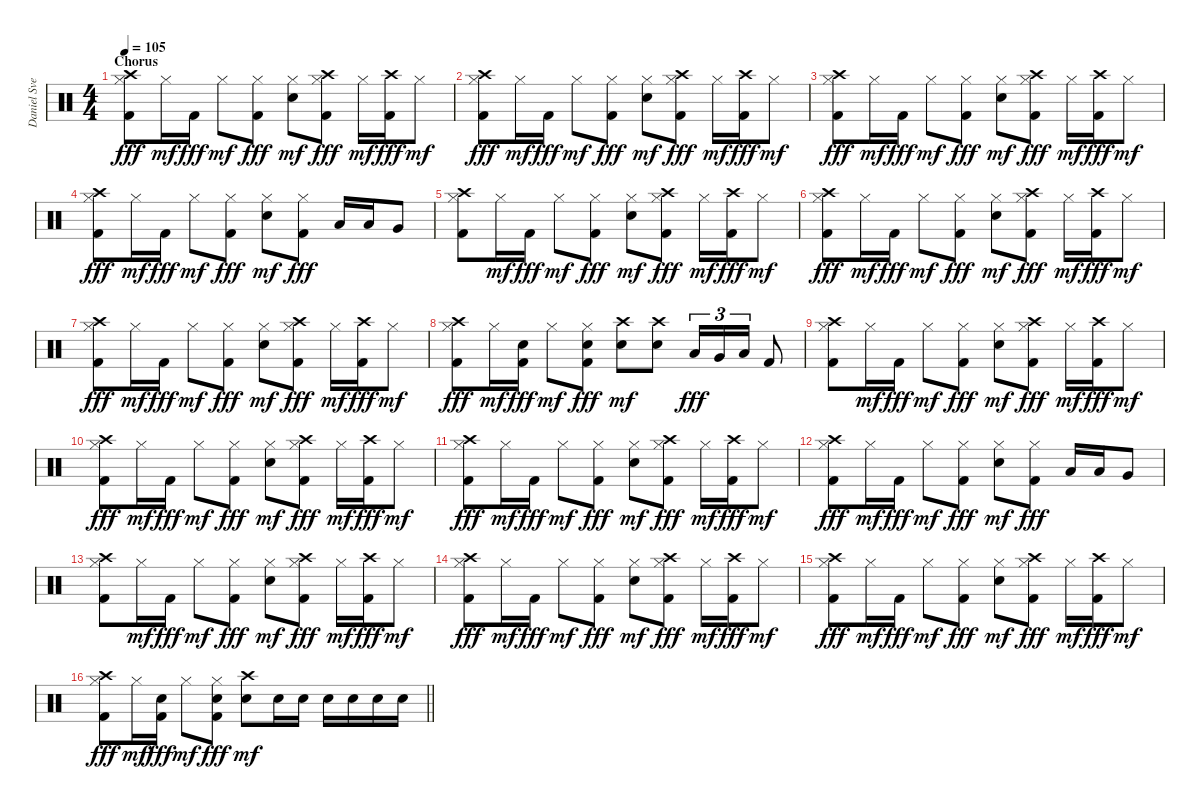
\track ("Daniel Svensson" "Daniel Sve") {instrument percussion}
\staff {score}
\articulation defaults
\ts (4 4)
\section ("" "Chorus")
\tempo 105
\clef neutral
\ks c
("Crash high (hit)" "Hi-Hat (closed)" "Kick (hit) 2").8{dy fff} "Hi-Hat (closed)".16{dy mf} "Kick (hit) 2".16{dy fff} "Hi-Hat (closed)".8{dy mf} ("Hi-Hat (closed)" "Kick (hit) 2").8{dy fff} ("Hi-Hat (closed)" "Electric Snare (hit)").8{dy mf} ("Crash high (hit)" "Hi-Hat (closed)" "Kick (hit) 2").8{dy fff} "Hi-Hat (closed)".16{dy mf} ("Crash high (hit)" "Kick (hit) 2").16{dy fff} "Hi-Hat (closed)".8{dy mf} |
("Crash high (hit)" "Hi-Hat (closed)" "Kick (hit) 2").8{dy fff} "Hi-Hat (closed)".16{dy mf} "Kick (hit) 2".16{dy fff} "Hi-Hat (closed)".8{dy mf} ("Hi-Hat (closed)" "Kick (hit) 2").8{dy fff} ("Hi-Hat (closed)" "Electric Snare (hit)").8{dy mf} ("Crash high (hit)" "Hi-Hat (closed)" "Kick (hit) 2").8{dy fff} "Hi-Hat (closed)".16{dy mf} ("Crash high (hit)" "Kick (hit) 2").16{dy fff} "Hi-Hat (closed)".8{dy mf} |
("Crash high (hit)" "Hi-Hat (closed)" "Kick (hit) 2").8{dy fff} "Hi-Hat (closed)".16{dy mf} "Kick (hit) 2".16{dy fff} "Hi-Hat (closed)".8{dy mf} ("Hi-Hat (closed)" "Kick (hit) 2").8{dy fff} ("Hi-Hat (closed)" "Electric Snare (hit)").8{dy mf} ("Crash high (hit)" "Hi-Hat (closed)" "Kick (hit) 2").8{dy fff} "Hi-Hat (closed)".16{dy mf} ("Crash high (hit)" "Kick (hit) 2").16{dy fff} "Hi-Hat (closed)".8{dy mf} |
("Crash high (hit)" "Hi-Hat (closed)" "Kick (hit) 2").8{dy fff} "Hi-Hat (closed)".16{dy mf} "Kick (hit) 2".16{dy fff} "Hi-Hat (closed)".8{dy mf} ("Hi-Hat (closed)" "Kick (hit) 2").8{dy fff} ("Hi-Hat (closed)" "Electric Snare (hit)").8{dy mf} ("Hi-Hat (closed)" "Kick (hit) 2").8{dy fff} "Low Tom (hit)".16 "Low Tom (hit)".16 "Very Low Tom (hit)".8 |
("Crash high (hit)" "Hi-Hat (closed)" "Kick (hit) 2").8 "Hi-Hat (closed)".16{dy mf} "Kick (hit) 2".16{dy fff} "Hi-Hat (closed)".8{dy mf} ("Hi-Hat (closed)" "Kick (hit) 2").8{dy fff} ("Hi-Hat (closed)" "Electric Snare (hit)").8{dy mf} ("Crash high (hit)" "Hi-Hat (closed)" "Kick (hit) 2").8{dy fff} "Hi-Hat (closed)".16{dy mf} ("Crash high (hit)" "Kick (hit) 2").16{dy fff} "Hi-Hat (closed)".8{dy mf} |
("Crash high (hit)" "Hi-Hat (closed)" "Kick (hit) 2").8{dy fff} "Hi-Hat (closed)".16{dy mf} "Kick (hit) 2".16{dy fff} "Hi-Hat (closed)".8{dy mf} ("Hi-Hat (closed)" "Kick (hit) 2").8{dy fff} ("Hi-Hat (closed)" "Electric Snare (hit)").8{dy mf} ("Crash high (hit)" "Hi-Hat (closed)" "Kick (hit) 2").8{dy fff} "Hi-Hat (closed)".16{dy mf} ("Crash high (hit)" "Kick (hit) 2").16{dy fff} "Hi-Hat (closed)".8{dy mf} |
("Crash high (hit)" "Hi-Hat (closed)" "Kick (hit) 2").8{dy fff} "Hi-Hat (closed)".16{dy mf} "Kick (hit) 2".16{dy fff} "Hi-Hat (closed)".8{dy mf} ("Hi-Hat (closed)" "Kick (hit) 2").8{dy fff} ("Hi-Hat (closed)" "Electric Snare (hit)").8{dy mf} ("Crash high (hit)" "Hi-Hat (closed)" "Kick (hit) 2").8{dy fff} "Hi-Hat (closed)".16{dy mf} ("Crash high (hit)" "Kick (hit) 2").16{dy fff} "Hi-Hat (closed)".8{dy mf} |
("Crash high (hit)" "Hi-Hat (closed)" "Kick (hit) 2").8{dy fff} "Hi-Hat (closed)".16{dy mf} ("Electric Snare (hit)" "Kick (hit) 2").16{dy fff} "Hi-Hat (closed)".8{dy mf} ("Hi-Hat (closed)" "Electric Snare (hit)" "Kick (hit) 2").8{dy fff} ("Crash high (hit)" "Electric Snare (hit)").8{dy mf} ("Crash high (hit)" "Electric Snare (hit)").8 "Low Tom (hit)".16{tu (3 2) dy fff} "Very Low Tom (hit)".16{tu (3 2)} "Low Floor Tom (hit)".16{tu (3 2)} "Kick (hit) 2".8 |
("Crash high (hit)" "Hi-Hat (closed)" "Kick (hit) 2").8 "Hi-Hat (closed)".16{dy mf} "Kick (hit) 2".16{dy fff} "Hi-Hat (closed)".8{dy mf} ("Hi-Hat (closed)" "Kick (hit) 2").8{dy fff} ("Hi-Hat (closed)" "Electric Snare (hit)").8{dy mf} ("Crash high (hit)" "Hi-Hat (closed)" "Kick (hit) 2").8{dy fff} "Hi-Hat (closed)".16{dy mf} ("Crash high (hit)" "Kick (hit) 2").16{dy fff} "Hi-Hat (closed)".8{dy mf} |
("Crash high (hit)" "Hi-Hat (closed)" "Kick (hit) 2").8{dy fff} "Hi-Hat (closed)".16{dy mf} "Kick (hit) 2".16{dy fff} "Hi-Hat (closed)".8{dy mf} ("Hi-Hat (closed)" "Kick (hit) 2").8{dy fff} ("Hi-Hat (closed)" "Electric Snare (hit)").8{dy mf} ("Crash high (hit)" "Hi-Hat (closed)" "Kick (hit) 2").8{dy fff} "Hi-Hat (closed)".16{dy mf} ("Crash high (hit)" "Kick (hit) 2").16{dy fff} "Hi-Hat (closed)".8{dy mf} |
("Crash high (hit)" "Hi-Hat (closed)" "Kick (hit) 2").8{dy fff} "Hi-Hat (closed)".16{dy mf} "Kick (hit) 2".16{dy fff} "Hi-Hat (closed)".8{dy mf} ("Hi-Hat (closed)" "Kick (hit) 2").8{dy fff} ("Hi-Hat (closed)" "Electric Snare (hit)").8{dy mf} ("Crash high (hit)" "Hi-Hat (closed)" "Kick (hit) 2").8{dy fff} "Hi-Hat (closed)".16{dy mf} ("Crash high (hit)" "Kick (hit) 2").16{dy fff} "Hi-Hat (closed)".8{dy mf} |
("Crash high (hit)" "Hi-Hat (closed)" "Kick (hit) 2").8{dy fff} "Hi-Hat (closed)".16{dy mf} "Kick (hit) 2".16{dy fff} "Hi-Hat (closed)".8{dy mf} ("Hi-Hat (closed)" "Kick (hit) 2").8{dy fff} ("Hi-Hat (closed)" "Electric Snare (hit)").8{dy mf} ("Hi-Hat (closed)" "Kick (hit) 2").8{dy fff} "Low Tom (hit)".16 "Low Tom (hit)".16 "Very Low Tom (hit)".8 |
("Crash high (hit)" "Hi-Hat (closed)" "Kick (hit) 2").8 "Hi-Hat (closed)".16{dy mf} "Kick (hit) 2".16{dy fff} "Hi-Hat (closed)".8{dy mf} ("Hi-Hat (closed)" "Kick (hit) 2").8{dy fff} ("Hi-Hat (closed)" "Electric Snare (hit)").8{dy mf} ("Crash high (hit)" "Hi-Hat (closed)" "Kick (hit) 2").8{dy fff} "Hi-Hat (closed)".16{dy mf} ("Crash high (hit)" "Kick (hit) 2").16{dy fff} "Hi-Hat (closed)".8{dy mf} |
("Crash high (hit)" "Hi-Hat (closed)" "Kick (hit) 2").8{dy fff} "Hi-Hat (closed)".16{dy mf} "Kick (hit) 2".16{dy fff} "Hi-Hat (closed)".8{dy mf} ("Hi-Hat (closed)" "Kick (hit) 2").8{dy fff} ("Hi-Hat (closed)" "Electric Snare (hit)").8{dy mf} ("Crash high (hit)" "Hi-Hat (closed)" "Kick (hit) 2").8{dy fff} "Hi-Hat (closed)".16{dy mf} ("Crash high (hit)" "Kick (hit) 2").16{dy fff} "Hi-Hat (closed)".8{dy mf} |
("Crash high (hit)" "Hi-Hat (closed)" "Kick (hit) 2").8{dy fff} "Hi-Hat (closed)".16{dy mf} "Kick (hit) 2".16{dy fff} "Hi-Hat (closed)".8{dy mf} ("Hi-Hat (closed)" "Kick (hit) 2").8{dy fff} ("Hi-Hat (closed)" "Electric Snare (hit)").8{dy mf} ("Crash high (hit)" "Hi-Hat (closed)" "Kick (hit) 2").8{dy fff} "Hi-Hat (closed)".16{dy mf} ("Crash high (hit)" "Kick (hit) 2").16{dy fff} "Hi-Hat (closed)".8{dy mf} |
\barLineRight lightlight
("Crash high (hit)" "Hi-Hat (closed)" "Kick (hit) 2").8{dy fff} "Hi-Hat (closed)".16{dy mf} ("Electric Snare (hit)" "Kick (hit) 2").16{dy fff} "Hi-Hat (closed)".8{dy mf} ("Hi-Hat (closed)" "Electric Snare (hit)" "Kick (hit) 2").8{dy fff} ("Crash high (hit)" "Electric Snare (hit)").8{dy mf} "Electric Snare (hit)".16 "Electric Snare (hit)".16 "Electric Snare (hit)".16 "Electric Snare (hit)".16 "Electric Snare (hit)".16 "Electric Snare (hit)".16
